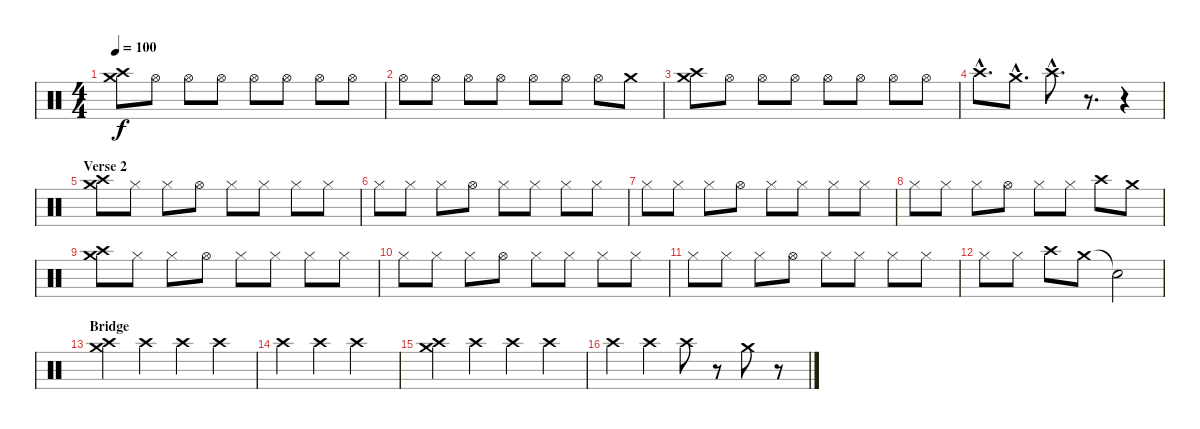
\track "" {instrument percussion}
\staff {score}
\articulation defaults
\ts (4 4)
\tempo 100
\clef neutral
\ks c
("Crash medium (hit)" "Crash high (hit)").8{dy f} "Hi-Hat (open)".8 "Hi-Hat (open)".8 "Hi-Hat (open)".8 "Hi-Hat (open)".8 "Hi-Hat (open)".8 "Hi-Hat (open)".8 "Hi-Hat (open)".8 |
"Hi-Hat (open)".8 "Hi-Hat (open)".8 "Hi-Hat (open)".8 "Hi-Hat (open)".8 "Hi-Hat (open)".8 "Hi-Hat (open)".8 "Hi-Hat (open)".8 "Crash medium (hit)".8 |
("Crash medium (hit)" "Crash high (hit)").8 "Hi-Hat (open)".8 "Hi-Hat (open)".8 "Hi-Hat (open)".8 "Hi-Hat (open)".8 "Hi-Hat (open)".8 "Hi-Hat (open)".8 "Hi-Hat (open)".8 |
"Crash high (hit)"{hac}.8{d} "Crash medium (hit)"{hac}.8{d} "Crash high (hit)"{hac}.8{d} r.8{d} r.4 |
\section ("" "Verse 2")
("Crash medium (hit)" "Crash high (hit)").8 "Hi-Hat (closed)".8 "Hi-Hat (closed)".8 "Hi-Hat (open)".8 "Hi-Hat (closed)".8 "Hi-Hat (closed)".8 "Hi-Hat (closed)".8 "Hi-Hat (closed)".8 |
"Hi-Hat (closed)".8 "Hi-Hat (closed)".8 "Hi-Hat (closed)".8 "Hi-Hat (open)".8 "Hi-Hat (closed)".8 "Hi-Hat (closed)".8 "Hi-Hat (closed)".8 "Hi-Hat (closed)".8 |
"Hi-Hat (closed)".8 "Hi-Hat (closed)".8 "Hi-Hat (closed)".8 "Hi-Hat (open)".8 "Hi-Hat (closed)".8 "Hi-Hat (closed)".8 "Hi-Hat (closed)".8 "Hi-Hat (closed)".8 |
"Hi-Hat (closed)".8 "Hi-Hat (closed)".8 "Hi-Hat (closed)".8 "Hi-Hat (open)".8 "Hi-Hat (closed)".8 "Hi-Hat (closed)".8 "Crash high (hit)".8 "Crash medium (hit)".8 |
("Crash medium (hit)" "Crash high (hit)").8 "Hi-Hat (closed)".8 "Hi-Hat (closed)".8 "Hi-Hat (open)".8 "Hi-Hat (closed)".8 "Hi-Hat (closed)".8 "Hi-Hat (closed)".8 "Hi-Hat (closed)".8 |
"Hi-Hat (closed)".8 "Hi-Hat (closed)".8 "Hi-Hat (closed)".8 "Hi-Hat (open)".8 "Hi-Hat (closed)".8 "Hi-Hat (closed)".8 "Hi-Hat (closed)".8 "Hi-Hat (closed)".8 |
"Hi-Hat (closed)".8 "Hi-Hat (closed)".8 "Hi-Hat (closed)".8 "Hi-Hat (open)".8 "Hi-Hat (closed)".8 "Hi-Hat (closed)".8 "Hi-Hat (closed)".8 "Hi-Hat (closed)".8 |
"Hi-Hat (closed)".8 "Hi-Hat (closed)".8 "Crash high (hit)".8 "Crash medium (hit)".8 "Snare (hit)"{t}.2 |
\section ("" "Bridge")
("Crash medium (hit)" "Crash high (hit)").4 "Crash high (hit)".4 "Crash high (hit)".4 "Crash high (hit)".4 |
"Crash high (hit)".4 "Crash high (hit)".4 "Crash high (hit)".2 |
("Crash medium (hit)" "Crash high (hit)").4 "Crash high (hit)".4 "Crash high (hit)".4 "Crash high (hit)".4 |
"Crash high (hit)".4 "Crash high (hit)".4 "Crash high (hit)".8 r.8 "Crash medium (hit)".8 r.8
